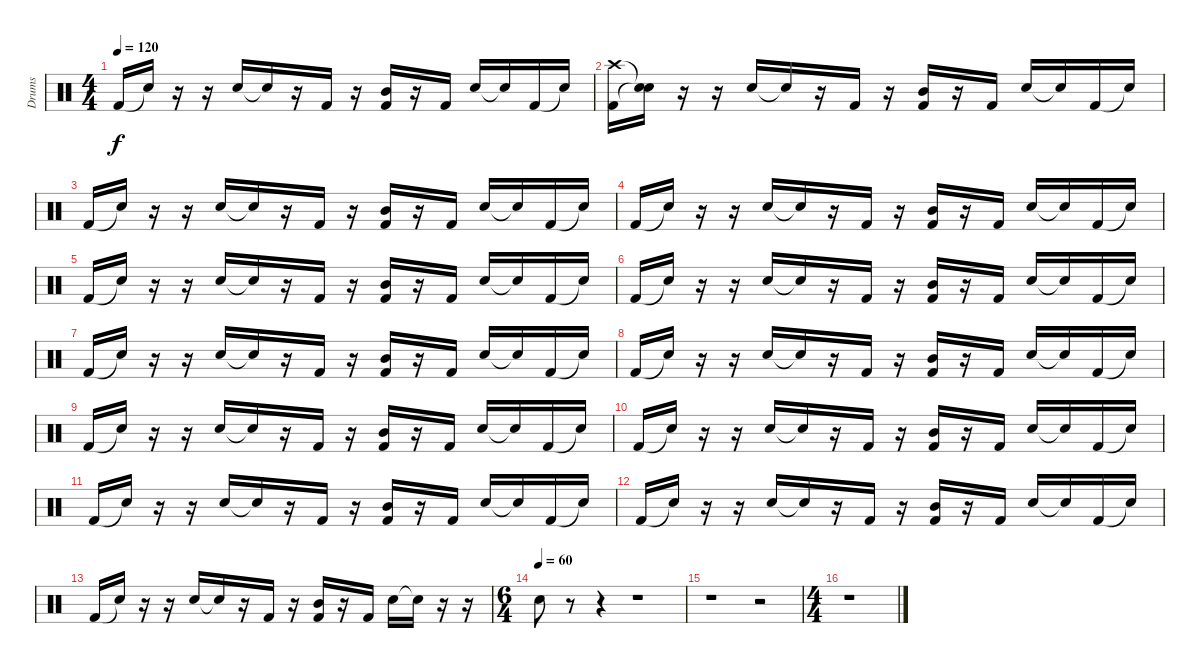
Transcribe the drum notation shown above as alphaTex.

\track ("Drums" "Drums") {instrument percussion}
\staff {score}
\articulation defaults
\ts (4 4)
\tempo 120
\clef neutral
\ks c "Kick (hit) 2".16{dy f} "Snare (hit)"{t}.16
r.16 r.16 "Snare (hit) 2".16 "Snare (hit)"{t}.16 r.16 "Kick (hit) 2".16 r.16 ("Mid Tom (hit)" "Kick (hit) 2").16 r.16 "Kick (hit) 2".16 "Snare (hit) 2".16 "Snare (hit)"{t}.16 "Kick (hit) 2".16 "Snare (hit)"{t}.16 |
("Crash high (hit)" "Kick (hit) 2").16 ("Snare (hit)"{t} "Snare (hit)"{t}).16 r.16 r.16 "Snare (hit) 2".16 "Snare (hit)"{t}.16 r.16 "Kick (hit) 2".16 r.16 ("Mid Tom (hit)" "Kick (hit) 2").16 r.16 "Kick (hit) 2".16 "Snare (hit) 2".16 "Snare (hit)"{t}.16 "Kick (hit) 2".16 "Snare (hit)"{t}.16 |
"Kick (hit) 2".16 "Snare (hit)"{t}.16 r.16 r.16 "Snare (hit) 2".16 "Snare (hit)"{t}.16 r.16 "Kick (hit) 2".16 r.16 ("Mid Tom (hit)" "Kick (hit) 2").16 r.16 "Kick (hit) 2".16 "Snare (hit) 2".16 "Snare (hit)"{t}.16 "Kick (hit) 2".16 "Snare (hit)"{t}.16 |
"Kick (hit) 2".16 "Snare (hit)"{t}.16 r.16 r.16 "Snare (hit) 2".16 "Snare (hit)"{t}.16 r.16 "Kick (hit) 2".16 r.16 ("Mid Tom (hit)" "Kick (hit) 2").16 r.16 "Kick (hit) 2".16 "Snare (hit) 2".16 "Snare (hit)"{t}.16 "Kick (hit) 2".16 "Snare (hit)"{t}.16 |
"Kick (hit) 2".16 "Snare (hit)"{t}.16 r.16 r.16 "Snare (hit) 2".16 "Snare (hit)"{t}.16 r.16 "Kick (hit) 2".16 r.16 ("Mid Tom (hit)" "Kick (hit) 2").16 r.16 "Kick (hit) 2".16 "Snare (hit) 2".16 "Snare (hit)"{t}.16 "Kick (hit) 2".16 "Snare (hit)"{t}.16 |
"Kick (hit) 2".16 "Snare (hit)"{t}.16 r.16 r.16 "Snare (hit) 2".16 "Snare (hit)"{t}.16 r.16 "Kick (hit) 2".16 r.16 ("Mid Tom (hit)" "Kick (hit) 2").16 r.16 "Kick (hit) 2".16 "Snare (hit) 2".16 "Snare (hit)"{t}.16 "Kick (hit) 2".16 "Snare (hit)"{t}.16 |
"Kick (hit) 2".16 "Snare (hit)"{t}.16 r.16 r.16 "Snare (hit) 2".16 "Snare (hit)"{t}.16 r.16 "Kick (hit) 2".16 r.16 ("Mid Tom (hit)" "Kick (hit) 2").16 r.16 "Kick (hit) 2".16 "Snare (hit) 2".16 "Snare (hit)"{t}.16 "Kick (hit) 2".16 "Snare (hit)"{t}.16 |
"Kick (hit) 2".16 "Snare (hit)"{t}.16 r.16 r.16 "Snare (hit) 2".16 "Snare (hit)"{t}.16 r.16 "Kick (hit) 2".16 r.16 ("Mid Tom (hit)" "Kick (hit) 2").16 r.16 "Kick (hit) 2".16 "Snare (hit) 2".16 "Snare (hit)"{t}.16 "Kick (hit) 2".16 "Snare (hit)"{t}.16 |
"Kick (hit) 2".16 "Snare (hit)"{t}.16 r.16 r.16 "Snare (hit) 2".16 "Snare (hit)"{t}.16 r.16 "Kick (hit) 2".16 r.16 ("Mid Tom (hit)" "Kick (hit) 2").16 r.16 "Kick (hit) 2".16 "Snare (hit) 2".16 "Snare (hit)"{t}.16 "Kick (hit) 2".16 "Snare (hit)"{t}.16 |
"Kick (hit) 2".16 "Snare (hit)"{t}.16 r.16 r.16 "Snare (hit) 2".16 "Snare (hit)"{t}.16 r.16 "Kick (hit) 2".16 r.16 ("Mid Tom (hit)" "Kick (hit) 2").16 r.16 "Kick (hit) 2".16 "Snare (hit) 2".16 "Snare (hit)"{t}.16 "Kick (hit) 2".16 "Snare (hit)"{t}.16 |
"Kick (hit) 2".16 "Snare (hit)"{t}.16 r.16 r.16 "Snare (hit) 2".16 "Snare (hit)"{t}.16 r.16 "Kick (hit) 2".16 r.16 ("Mid Tom (hit)" "Kick (hit) 2").16 r.16 "Kick (hit) 2".16 "Snare (hit) 2".16 "Snare (hit)"{t}.16 "Kick (hit) 2".16 "Snare (hit)"{t}.16 |
"Kick (hit) 2".16 "Snare (hit)"{t}.16 r.16 r.16 "Snare (hit) 2".16 "Snare (hit)"{t}.16 r.16 "Kick (hit) 2".16 r.16 ("Mid Tom (hit)" "Kick (hit) 2").16 r.16 "Kick (hit) 2".16 "Snare (hit) 2".16 "Snare (hit)"{t}.16 "Kick (hit) 2".16 "Snare (hit)"{t}.16 |
"Kick (hit) 2".16 "Snare (hit)"{t}.16 r.16 r.16 "Snare (hit) 2".16 "Snare (hit)"{t}.16 r.16 "Kick (hit) 2".16 r.16 ("Mid Tom (hit)" "Kick (hit) 2").16 r.16 "Kick (hit) 2".16 "Snare (hit) 2".16 "Snare (hit)"{t}.16 r.16 r.16 |
\ts (6 4)
\tempo (60)
"Snare (hit) 2".8 r.8 r.4 r.1 |
r.1 r.2 |
\ts (4 4)
r.1
